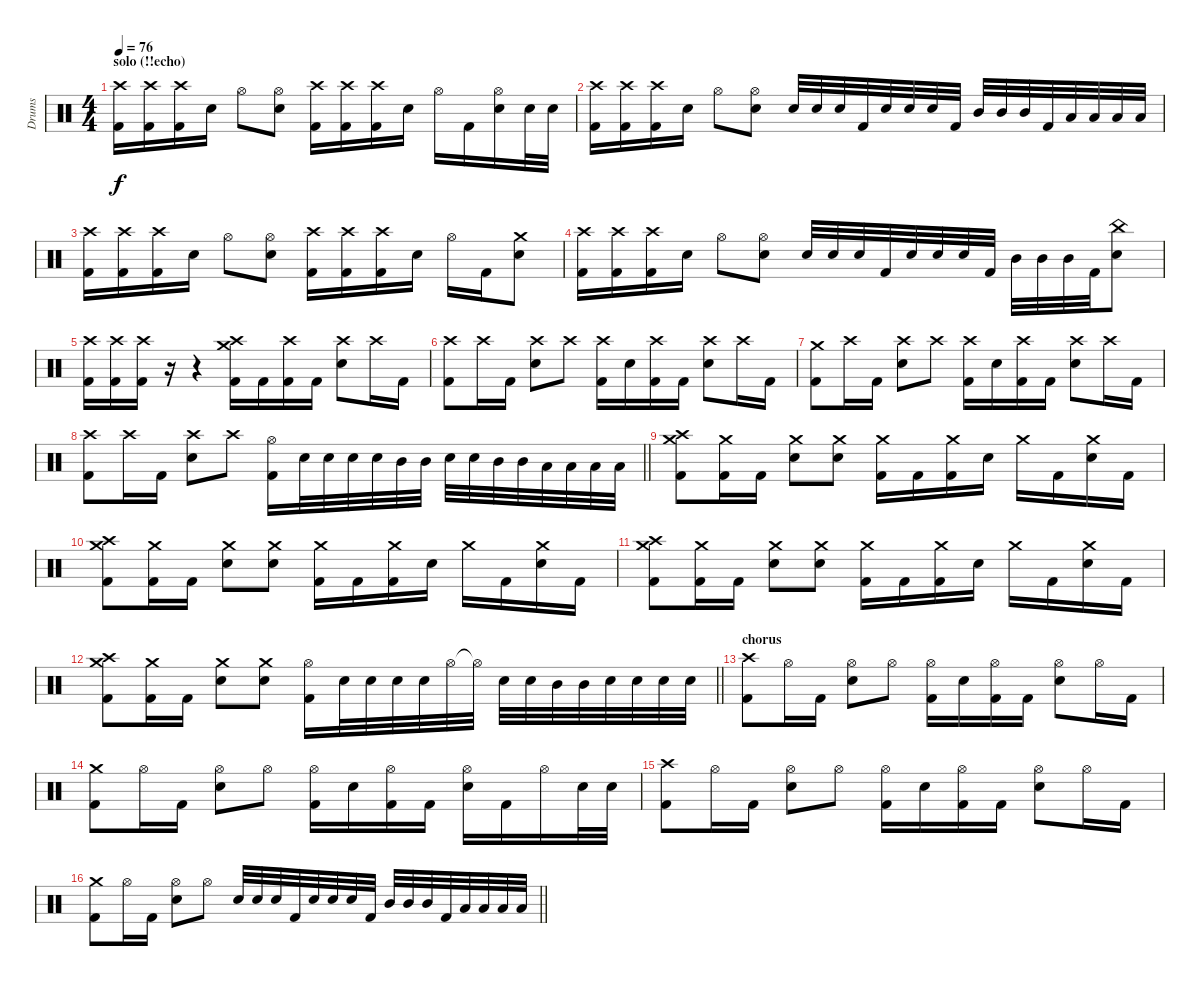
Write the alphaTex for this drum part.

\track ("Drums" "Drums") {instrument percussion}
\staff {score}
\articulation defaults
\ts (4 4)
\section ("" "solo (!!echo)")
\tempo 76
\clef neutral
\ks c
("Crash high (hit)" "Kick (hit) 2").16{dy f} ("Crash high (hit)" "Kick (hit) 2").16 ("Crash high (hit)" "Kick (hit) 2").16 "Snare (hit) 2".16 "Hi-Hat (open)".8 ("Hi-Hat (open)" "Snare (hit) 2").8 ("Crash high (hit)" "Kick (hit) 2").16 ("Crash high (hit)" "Kick (hit) 2").16 ("Crash high (hit)" "Kick (hit) 2").16 "Snare (hit) 2".16 "Hi-Hat (open)".16 "Kick (hit) 2".16 ("Hi-Hat (open)" "Snare (hit) 2").16 "Snare (hit) 2".32 "Snare (hit) 2".32 |
("Crash high (hit)" "Kick (hit) 2").16 ("Crash high (hit)" "Kick (hit) 2").16 ("Crash high (hit)" "Kick (hit) 2").16 "Snare (hit) 2".16 "Hi-Hat (open)".8 ("Hi-Hat (open)" "Snare (hit) 2").8 "Snare (hit) 2".32 "Snare (hit) 2".32 "Snare (hit) 2".32 "Kick (hit) 2".32 "Snare (hit) 2".32 "Snare (hit) 2".32 "Snare (hit) 2".32 "Kick (hit) 2".32 "Mid Tom (hit)".32 "Mid Tom (hit)".32 "Mid Tom (hit)".32 "Kick (hit) 2".32 "Low Tom (hit)".32 "Low Tom (hit)".32 "Low Tom (hit)".32 "Low Tom (hit)".32 |
("Crash high (hit)" "Kick (hit) 2").16 ("Crash high (hit)" "Kick (hit) 2").16 ("Crash high (hit)" "Kick (hit) 2").16 "Snare (hit) 2".16 "Hi-Hat (open)".8 ("Hi-Hat (open)" "Snare (hit) 2").8 ("Crash high (hit)" "Kick (hit) 2").16 ("Crash high (hit)" "Kick (hit) 2").16 ("Crash high (hit)" "Kick (hit) 2").16 "Snare (hit) 2".16 "Hi-Hat (open)".16 "Kick (hit) 2".16 ("Crash medium (hit)" "Snare (hit) 2").8 |
("Crash high (hit)" "Kick (hit) 2").16 ("Crash high (hit)" "Kick (hit) 2").16 ("Crash high (hit)" "Kick (hit) 2").16 "Snare (hit) 2".16 "Hi-Hat (open)".8 ("Hi-Hat (open)" "Snare (hit) 2").8 "Snare (hit) 2".32 "Snare (hit) 2".32 "Snare (hit) 2".32 "Kick (hit) 2".32 "Snare (hit) 2".32 "Snare (hit) 2".32 "Snare (hit) 2".32 "Kick (hit) 2".32 "Mid Tom (hit)".32 "Mid Tom (hit)".32 "Mid Tom (hit)".32 "Kick (hit) 2".32 ("China (hit)" "Snare (hit) 2").8 |
("Crash high (hit)" "Kick (hit) 2").16 ("Crash high (hit)" "Kick (hit) 2").16 ("Crash high (hit)" "Kick (hit) 2").16 r.16 r.4 ("Crash medium (hit)" "Crash high (hit)" "Kick (hit) 2").16 "Kick (hit) 2".16 ("Crash high (hit)" "Kick (hit) 2").16 "Kick (hit) 2".16 ("Crash high (hit)" "Snare (hit) 2").8 "Crash high (hit)".16 "Kick (hit) 2".16 |
("Crash high (hit)" "Kick (hit) 2").8 "Crash high (hit)".16 "Kick (hit) 2".16 ("Crash high (hit)" "Snare (hit) 2").8 "Crash high (hit)".8 ("Crash high (hit)" "Kick (hit) 2").16 "Snare (hit) 2".16 ("Crash high (hit)" "Kick (hit) 2").16 "Kick (hit) 2".16 ("Crash high (hit)" "Snare (hit) 2").8 "Crash high (hit)".16 "Kick (hit) 2".16 |
("Crash medium (hit)" "Kick (hit) 2").8 "Crash high (hit)".16 "Kick (hit) 2".16 ("Crash high (hit)" "Snare (hit) 2").8 "Crash high (hit)".8 ("Crash high (hit)" "Kick (hit) 2").16 "Snare (hit) 2".16 ("Crash high (hit)" "Kick (hit) 2").16 "Kick (hit) 2".16 ("Crash high (hit)" "Snare (hit) 2").8 "Crash high (hit)".16 "Kick (hit) 2".16 |
\barLineRight lightlight
("Crash high (hit)" "Kick (hit) 2").8 "Crash high (hit)".16 "Kick (hit) 2".16 ("Crash high (hit)" "Snare (hit) 2").8 "Crash high (hit)".8 ("Hi-Hat (open)" "Kick (hit) 2").16 "Snare (hit) 2".32 "Snare (hit) 2".32 "Snare (hit) 2".32 "Snare (hit) 2".32 "Mid Tom (hit)".32 "Mid Tom (hit)".32 "Snare (hit) 2".32 "Snare (hit) 2".32 "Mid Tom (hit)".32 "Mid Tom (hit)".32 "Low Tom (hit)".32 "Low Tom (hit)".32 "Low Tom (hit)".32 "Low Tom (hit)".32 |
("Crash medium (hit)" "Crash high (hit)" "Kick (hit) 2").8 ("Crash medium (hit)" "Kick (hit) 2").16 "Kick (hit) 2".16 ("Crash medium (hit)" "Snare (hit) 2").8 ("Crash medium (hit)" "Snare (hit) 2").8 ("Crash medium (hit)" "Kick (hit) 2").16 "Kick (hit) 2".16 ("Crash medium (hit)" "Kick (hit) 2").16 "Snare (hit) 2".16 "Crash medium (hit)".16 "Kick (hit) 2".16 ("Crash medium (hit)" "Snare (hit) 2").16 "Kick (hit) 2".16 |
("Crash medium (hit)" "Crash high (hit)" "Kick (hit) 2").8 ("Crash medium (hit)" "Kick (hit) 2").16 "Kick (hit) 2".16 ("Crash medium (hit)" "Snare (hit) 2").8 ("Crash medium (hit)" "Snare (hit) 2").8 ("Crash medium (hit)" "Kick (hit) 2").16 "Kick (hit) 2".16 ("Crash medium (hit)" "Kick (hit) 2").16 "Snare (hit) 2".16 "Crash medium (hit)".16 "Kick (hit) 2".16 ("Crash medium (hit)" "Snare (hit) 2").16 "Kick (hit) 2".16 |
("Crash medium (hit)" "Crash high (hit)" "Kick (hit) 2").8 ("Crash medium (hit)" "Kick (hit) 2").16 "Kick (hit) 2".16 ("Crash medium (hit)" "Snare (hit) 2").8 ("Crash medium (hit)" "Snare (hit) 2").8 ("Crash medium (hit)" "Kick (hit) 2").16 "Kick (hit) 2".16 ("Crash medium (hit)" "Kick (hit) 2").16 "Snare (hit) 2".16 "Crash medium (hit)".16 "Kick (hit) 2".16 ("Crash medium (hit)" "Snare (hit) 2").16 "Kick (hit) 2".16 |
\barLineRight lightlight
("Crash medium (hit)" "Crash high (hit)" "Kick (hit) 2").8 ("Crash medium (hit)" "Kick (hit) 2").16 "Kick (hit) 2".16 ("Crash medium (hit)" "Snare (hit) 2").8 ("Crash medium (hit)" "Snare (hit) 2").8 ("Hi-Hat (open)" "Kick (hit) 2").16 "Snare (hit) 2".32 "Snare (hit) 2".32 "Snare (hit) 2".32 "Snare (hit) 2".32 "Hi-Hat (open)".32 "Hi-Hat (open)"{t}.32 "Snare (hit) 2".32 "Snare (hit) 2".32 "Mid Tom (hit)".32 "Mid Tom (hit)".32 "Snare (hit) 2".32 "Snare (hit) 2".32 "Snare (hit) 2".32 "Snare (hit) 2".32 |
\section ("" "chorus")
("Crash high (hit)" "Kick (hit) 2").8 "Hi-Hat (open)".16 "Kick (hit) 2".16 ("Hi-Hat (open)" "Snare (hit) 2").8 "Hi-Hat (open)".8 ("Hi-Hat (open)" "Kick (hit) 2").16 "Snare (hit) 2".16 ("Hi-Hat (open)" "Kick (hit) 2").16 "Kick (hit) 2".16 ("Hi-Hat (open)" "Snare (hit) 2").8 "Hi-Hat (open)".16 "Kick (hit) 2".16 |
("Crash medium (hit)" "Kick (hit) 2").8 "Hi-Hat (open)".16 "Kick (hit) 2".16 ("Hi-Hat (open)" "Snare (hit) 2").8 "Hi-Hat (open)".8 ("Hi-Hat (open)" "Kick (hit) 2").16 "Snare (hit) 2".16 ("Hi-Hat (open)" "Kick (hit) 2").16 "Kick (hit) 2".16 ("Hi-Hat (open)" "Snare (hit) 2").16 "Kick (hit) 2".16 "Hi-Hat (open)".16 "Snare (hit) 2".32 "Snare (hit) 2".32 |
("Crash high (hit)" "Kick (hit) 2").8 "Hi-Hat (open)".16 "Kick (hit) 2".16 ("Hi-Hat (open)" "Snare (hit) 2").8 "Hi-Hat (open)".8 ("Hi-Hat (open)" "Kick (hit) 2").16 "Snare (hit) 2".16 ("Hi-Hat (open)" "Kick (hit) 2").16 "Kick (hit) 2".16 ("Hi-Hat (open)" "Snare (hit) 2").8 "Hi-Hat (open)".16 "Kick (hit) 2".16 |
\barLineRight lightlight
("Crash medium (hit)" "Kick (hit) 2").8 "Hi-Hat (open)".16 "Kick (hit) 2".16 ("Hi-Hat (open)" "Snare (hit) 2").8 "Hi-Hat (open)".8 "Snare (hit) 2".32 "Snare (hit) 2".32 "Snare (hit) 2".32 "Kick (hit) 2".32 "Snare (hit) 2".32 "Snare (hit) 2".32 "Snare (hit) 2".32 "Kick (hit) 2".32 "Mid Tom (hit)".32 "Mid Tom (hit)".32 "Mid Tom (hit)".32 "Kick (hit) 2".32 "Low Tom (hit)".32 "Low Tom (hit)".32 "Low Tom (hit)".32 "Low Tom (hit)".32
